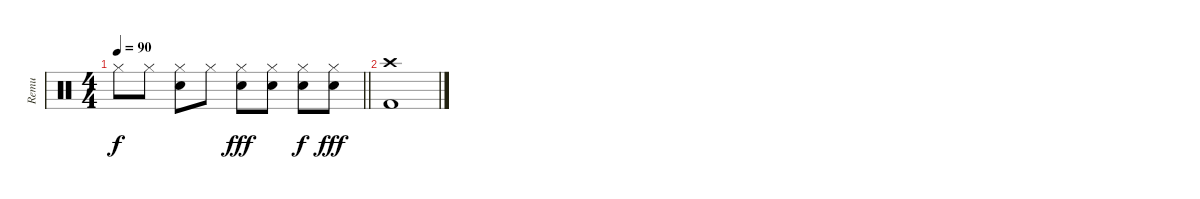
\track ("Remu" "Remu") {instrument percussion}
\staff {score}
\articulation defaults
\ts (4 4)
\tempo 90
\clef neutral
\barLineRight lightlight
\ks c "Hi-Hat (closed)".8{dy f} "Hi-Hat (closed)".8
("Hi-Hat (closed)" "Snare (hit) 2").8 "Hi-Hat (closed)".8 ("Hi-Hat (closed)" "Snare (hit) 2").8{dy fff} ("Hi-Hat (closed)" "Snare (hit) 2").8 ("Hi-Hat (closed)" "Snare (hit) 2").8{dy f} ("Hi-Hat (closed)" "Snare (hit) 2").8{dy fff} |
("Crash high (hit)" "Kick (hit) 2").1
